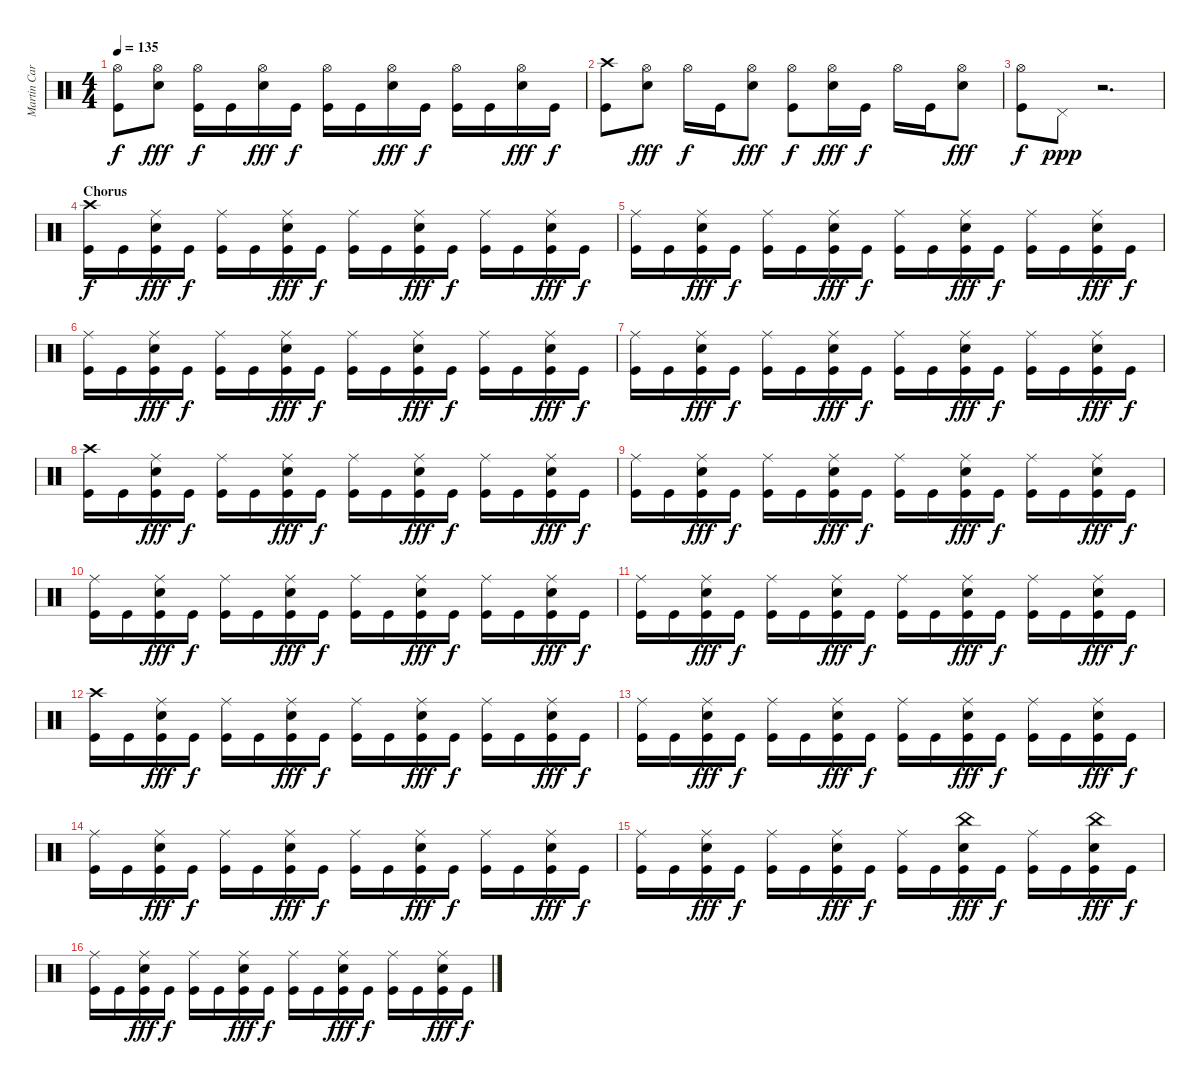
\track ("Martin Carrizo" "Martin Car") {instrument percussion}
\staff {score}
\articulation defaults
\ts (4 4)
\tempo 135
\clef neutral
\ks c
("Kick (hit)" "Hi-Hat (open)").8{dy f} ("Snare (hit) 2" "Hi-Hat (open)").8{dy fff} ("Kick (hit)" "Hi-Hat (open)").16{dy f} "Kick (hit)".16 ("Snare (hit) 2" "Hi-Hat (open)").16{dy fff} "Kick (hit)".16{dy f} ("Kick (hit)" "Hi-Hat (open)").16 "Kick (hit)".16 ("Snare (hit) 2" "Hi-Hat (open)").16{dy fff} "Kick (hit)".16{dy f} ("Kick (hit)" "Hi-Hat (open)").16 "Kick (hit)".16 ("Snare (hit) 2" "Hi-Hat (open)").16{dy fff} "Kick (hit)".16{dy f} |
("Kick (hit)" "Crash high (hit)").8 ("Snare (hit) 2" "Hi-Hat (open)").8{dy fff} "Hi-Hat (open)".16{dy f} "Kick (hit)".16 ("Snare (hit) 2" "Hi-Hat (open)").8{dy fff} ("Kick (hit)" "Hi-Hat (open)").8{dy f} ("Snare (hit) 2" "Hi-Hat (open)").16{dy fff} "Kick (hit)".16{dy f} "Hi-Hat (open)".16 "Kick (hit)".16 ("Snare (hit) 2" "Hi-Hat (open)").8{dy fff} |
("Kick (hit)" "Hi-Hat (open)").8{dy f} "Pedal Hi-Hat (hit)".8{dy ppp} r.2{d} |
\section ("" "Chorus")
("Kick (hit)" "Crash high (hit)").16{dy f} "Kick (hit)".16 ("Kick (hit)" "Snare (hit) 2" "Ride (middle)").16{dy fff} "Kick (hit)".16{dy f} ("Kick (hit)" "Ride (middle)").16 "Kick (hit)".16 ("Kick (hit)" "Snare (hit) 2" "Ride (middle)").16{dy fff} "Kick (hit)".16{dy f} ("Kick (hit)" "Ride (middle)").16 "Kick (hit)".16 ("Kick (hit)" "Snare (hit) 2" "Ride (middle)").16{dy fff} "Kick (hit)".16{dy f} ("Kick (hit)" "Ride (middle)").16 "Kick (hit)".16 ("Kick (hit)" "Snare (hit) 2" "Ride (middle)").16{dy fff} "Kick (hit)".16{dy f} |
("Kick (hit)" "Ride (middle)").16 "Kick (hit)".16 ("Kick (hit)" "Snare (hit) 2" "Ride (middle)").16{dy fff} "Kick (hit)".16{dy f} ("Kick (hit)" "Ride (middle)").16 "Kick (hit)".16 ("Kick (hit)" "Snare (hit) 2" "Ride (middle)").16{dy fff} "Kick (hit)".16{dy f} ("Kick (hit)" "Ride (middle)").16 "Kick (hit)".16 ("Kick (hit)" "Snare (hit) 2" "Ride (middle)").16{dy fff} "Kick (hit)".16{dy f} ("Kick (hit)" "Ride (middle)").16 "Kick (hit)".16 ("Kick (hit)" "Snare (hit) 2" "Ride (middle)").16{dy fff} "Kick (hit)".16{dy f} |
("Kick (hit)" "Ride (middle)").16 "Kick (hit)".16 ("Kick (hit)" "Snare (hit) 2" "Ride (middle)").16{dy fff} "Kick (hit)".16{dy f} ("Kick (hit)" "Ride (middle)").16 "Kick (hit)".16 ("Kick (hit)" "Snare (hit) 2" "Ride (middle)").16{dy fff} "Kick (hit)".16{dy f} ("Kick (hit)" "Ride (middle)").16 "Kick (hit)".16 ("Kick (hit)" "Snare (hit) 2" "Ride (middle)").16{dy fff} "Kick (hit)".16{dy f} ("Kick (hit)" "Ride (middle)").16 "Kick (hit)".16 ("Kick (hit)" "Snare (hit) 2" "Ride (middle)").16{dy fff} "Kick (hit)".16{dy f} |
("Kick (hit)" "Ride (middle)").16 "Kick (hit)".16 ("Kick (hit)" "Snare (hit) 2" "Ride (middle)").16{dy fff} "Kick (hit)".16{dy f} ("Kick (hit)" "Ride (middle)").16 "Kick (hit)".16 ("Kick (hit)" "Snare (hit) 2" "Ride (middle)").16{dy fff} "Kick (hit)".16{dy f} ("Kick (hit)" "Ride (middle)").16 "Kick (hit)".16 ("Kick (hit)" "Snare (hit) 2" "Ride (middle)").16{dy fff} "Kick (hit)".16{dy f} ("Kick (hit)" "Ride (middle)").16 "Kick (hit)".16 ("Kick (hit)" "Snare (hit) 2" "Ride (middle)").16{dy fff} "Kick (hit)".16{dy f} |
("Kick (hit)" "Crash high (hit)").16 "Kick (hit)".16 ("Kick (hit)" "Snare (hit) 2" "Ride (middle)").16{dy fff} "Kick (hit)".16{dy f} ("Kick (hit)" "Ride (middle)").16 "Kick (hit)".16 ("Kick (hit)" "Snare (hit) 2" "Ride (middle)").16{dy fff} "Kick (hit)".16{dy f} ("Kick (hit)" "Ride (middle)").16 "Kick (hit)".16 ("Kick (hit)" "Snare (hit) 2" "Ride (middle)").16{dy fff} "Kick (hit)".16{dy f} ("Kick (hit)" "Ride (middle)").16 "Kick (hit)".16 ("Kick (hit)" "Snare (hit) 2" "Ride (middle)").16{dy fff} "Kick (hit)".16{dy f} |
("Kick (hit)" "Ride (middle)").16 "Kick (hit)".16 ("Kick (hit)" "Snare (hit) 2" "Ride (middle)").16{dy fff} "Kick (hit)".16{dy f} ("Kick (hit)" "Ride (middle)").16 "Kick (hit)".16 ("Kick (hit)" "Snare (hit) 2" "Ride (middle)").16{dy fff} "Kick (hit)".16{dy f} ("Kick (hit)" "Ride (middle)").16 "Kick (hit)".16 ("Kick (hit)" "Snare (hit) 2" "Ride (middle)").16{dy fff} "Kick (hit)".16{dy f} ("Kick (hit)" "Ride (middle)").16 "Kick (hit)".16 ("Kick (hit)" "Snare (hit) 2" "Ride (middle)").16{dy fff} "Kick (hit)".16{dy f} |
("Kick (hit)" "Ride (middle)").16 "Kick (hit)".16 ("Kick (hit)" "Snare (hit) 2" "Ride (middle)").16{dy fff} "Kick (hit)".16{dy f} ("Kick (hit)" "Ride (middle)").16 "Kick (hit)".16 ("Kick (hit)" "Snare (hit) 2" "Ride (middle)").16{dy fff} "Kick (hit)".16{dy f} ("Kick (hit)" "Ride (middle)").16 "Kick (hit)".16 ("Kick (hit)" "Snare (hit) 2" "Ride (middle)").16{dy fff} "Kick (hit)".16{dy f} ("Kick (hit)" "Ride (middle)").16 "Kick (hit)".16 ("Kick (hit)" "Snare (hit) 2" "Ride (middle)").16{dy fff} "Kick (hit)".16{dy f} |
("Kick (hit)" "Ride (middle)").16 "Kick (hit)".16 ("Kick (hit)" "Snare (hit) 2" "Ride (middle)").16{dy fff} "Kick (hit)".16{dy f} ("Kick (hit)" "Ride (middle)").16 "Kick (hit)".16 ("Kick (hit)" "Snare (hit) 2" "Ride (middle)").16{dy fff} "Kick (hit)".16{dy f} ("Kick (hit)" "Ride (middle)").16 "Kick (hit)".16 ("Kick (hit)" "Snare (hit) 2" "Ride (middle)").16{dy fff} "Kick (hit)".16{dy f} ("Kick (hit)" "Ride (middle)").16 "Kick (hit)".16 ("Kick (hit)" "Snare (hit) 2" "Ride (middle)").16{dy fff} "Kick (hit)".16{dy f} |
("Kick (hit)" "Crash high (hit)").16 "Kick (hit)".16 ("Kick (hit)" "Snare (hit) 2" "Ride (middle)").16{dy fff} "Kick (hit)".16{dy f} ("Kick (hit)" "Ride (middle)").16 "Kick (hit)".16 ("Kick (hit)" "Snare (hit) 2" "Ride (middle)").16{dy fff} "Kick (hit)".16{dy f} ("Kick (hit)" "Ride (middle)").16 "Kick (hit)".16 ("Kick (hit)" "Snare (hit) 2" "Ride (middle)").16{dy fff} "Kick (hit)".16{dy f} ("Kick (hit)" "Ride (middle)").16 "Kick (hit)".16 ("Kick (hit)" "Snare (hit) 2" "Ride (middle)").16{dy fff} "Kick (hit)".16{dy f} |
("Kick (hit)" "Ride (middle)").16 "Kick (hit)".16 ("Kick (hit)" "Snare (hit) 2" "Ride (middle)").16{dy fff} "Kick (hit)".16{dy f} ("Kick (hit)" "Ride (middle)").16 "Kick (hit)".16 ("Kick (hit)" "Snare (hit) 2" "Ride (middle)").16{dy fff} "Kick (hit)".16{dy f} ("Kick (hit)" "Ride (middle)").16 "Kick (hit)".16 ("Kick (hit)" "Snare (hit) 2" "Ride (middle)").16{dy fff} "Kick (hit)".16{dy f} ("Kick (hit)" "Ride (middle)").16 "Kick (hit)".16 ("Kick (hit)" "Snare (hit) 2" "Ride (middle)").16{dy fff} "Kick (hit)".16{dy f} |
("Kick (hit)" "Ride (middle)").16 "Kick (hit)".16 ("Kick (hit)" "Snare (hit) 2" "Ride (middle)").16{dy fff} "Kick (hit)".16{dy f} ("Kick (hit)" "Ride (middle)").16 "Kick (hit)".16 ("Kick (hit)" "Snare (hit) 2" "Ride (middle)").16{dy fff} "Kick (hit)".16{dy f} ("Kick (hit)" "Ride (middle)").16 "Kick (hit)".16 ("Kick (hit)" "Snare (hit) 2" "Ride (middle)").16{dy fff} "Kick (hit)".16{dy f} ("Kick (hit)" "Ride (middle)").16 "Kick (hit)".16 ("Kick (hit)" "Snare (hit) 2" "Ride (middle)").16{dy fff} "Kick (hit)".16{dy f} |
("Kick (hit)" "Ride (middle)").16 "Kick (hit)".16 ("Kick (hit)" "Snare (hit) 2" "Ride (middle)").16{dy fff} "Kick (hit)".16{dy f} ("Kick (hit)" "Ride (middle)").16 "Kick (hit)".16 ("Kick (hit)" "Snare (hit) 2" "Ride (middle)").16{dy fff} "Kick (hit)".16{dy f} ("Kick (hit)" "Ride (middle)").16 "Kick (hit)".16 ("Kick (hit)" "Snare (hit) 2" "China (hit)").16{dy fff} "Kick (hit)".16{dy f} ("Kick (hit)" "Ride (middle)").16 "Kick (hit)".16 ("Kick (hit)" "Snare (hit) 2" "China (hit)").16{dy fff} "Kick (hit)".16{dy f} |
("Kick (hit)" "Ride (middle)").16 "Kick (hit)".16 ("Kick (hit)" "Snare (hit) 2" "Ride (middle)").16{dy fff} "Kick (hit)".16{dy f} ("Kick (hit)" "Ride (middle)").16 "Kick (hit)".16 ("Kick (hit)" "Snare (hit) 2" "Ride (middle)").16{dy fff} "Kick (hit)".16{dy f} ("Kick (hit)" "Ride (middle)").16 "Kick (hit)".16 ("Kick (hit)" "Snare (hit) 2" "Ride (middle)").16{dy fff} "Kick (hit)".16{dy f} ("Kick (hit)" "Ride (middle)").16 "Kick (hit)".16 ("Kick (hit)" "Snare (hit) 2" "Ride (middle)").16{dy fff} "Kick (hit)".16{dy f}
